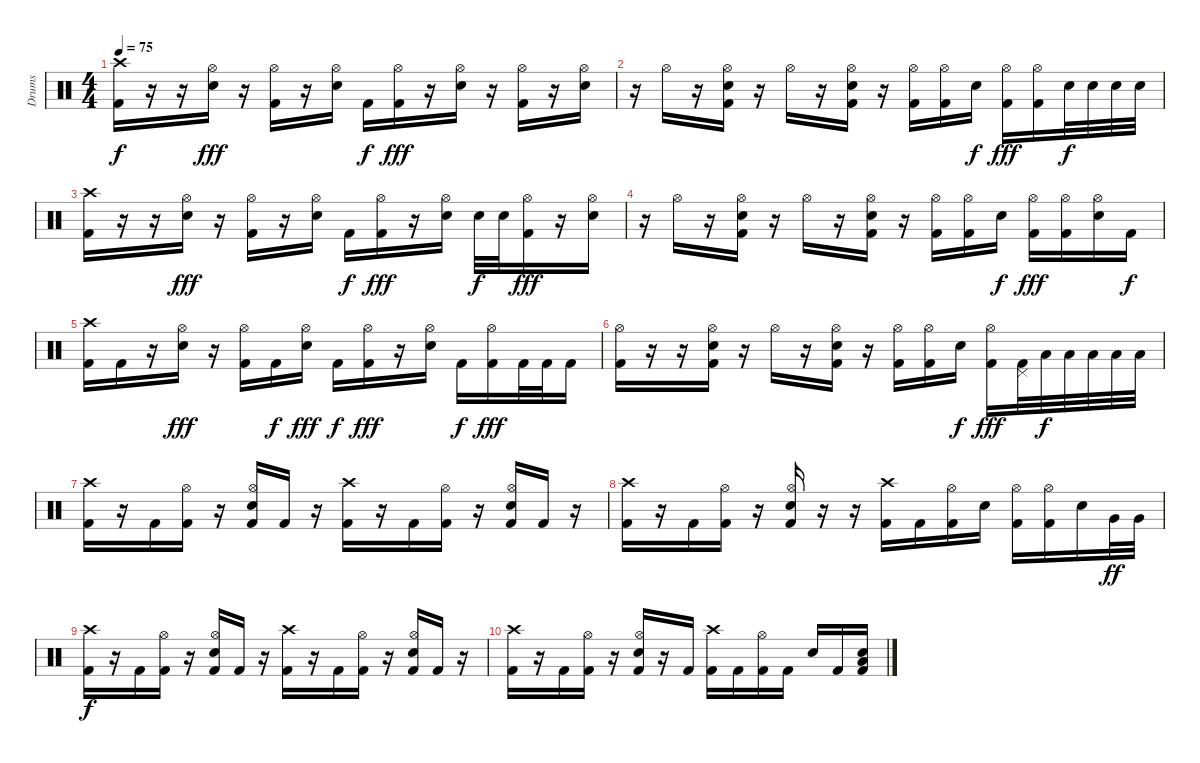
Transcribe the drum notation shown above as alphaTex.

\track ("Drums" "Drums") {instrument percussion}
\staff {score}
\articulation defaults
\ts (4 4)
\tempo 75
\clef neutral
\ks c
("Crash high (hit)" "Kick (hit) 2").16{dy f} r.16 r.16 ("Hi-Hat (open)" "Electric Snare (hit)").16{dy fff} r.16 ("Hi-Hat (open)" "Kick (hit) 2").16 r.16 ("Hi-Hat (open)" "Electric Snare (hit)").16 "Kick (hit) 2".16{dy f} ("Hi-Hat (open)" "Kick (hit) 2").16{dy fff} r.16 ("Hi-Hat (open)" "Electric Snare (hit)").16 r.16 ("Hi-Hat (open)" "Kick (hit) 2").16 r.16 ("Hi-Hat (open)" "Electric Snare (hit)").16 |
r.16 "Hi-Hat (open)".16 r.16 ("Hi-Hat (open)" "Electric Snare (hit)" "Kick (hit) 2").16 r.16 "Hi-Hat (open)".16 r.16 ("Hi-Hat (open)" "Electric Snare (hit)" "Kick (hit) 2").16 r.16 ("Hi-Hat (open)" "Kick (hit) 2").16 ("Hi-Hat (open)" "Kick (hit) 2").16 "Electric Snare (hit)".16{dy f} ("Hi-Hat (open)" "Kick (hit) 2").16{dy fff} ("Hi-Hat (open)" "Kick (hit) 2").16 "Electric Snare (hit)".32{dy f} "Electric Snare (hit)".32 "Electric Snare (hit)".32 "Electric Snare (hit)".32 |
("Crash high (hit)" "Kick (hit) 2").16 r.16 r.16 ("Hi-Hat (open)" "Electric Snare (hit)").16{dy fff} r.16 ("Hi-Hat (open)" "Kick (hit) 2").16 r.16 ("Hi-Hat (open)" "Electric Snare (hit)").16 "Kick (hit) 2".16{dy f} ("Hi-Hat (open)" "Kick (hit) 2").16{dy fff} r.16 ("Hi-Hat (open)" "Electric Snare (hit)").16 "Electric Snare (hit)".32{dy f} "Electric Snare (hit)".32 ("Hi-Hat (open)" "Kick (hit) 2").16{dy fff} r.16 ("Hi-Hat (open)" "Electric Snare (hit)").16 |
r.16 "Hi-Hat (open)".16 r.16 ("Hi-Hat (open)" "Electric Snare (hit)" "Kick (hit) 2").16 r.16 "Hi-Hat (open)".16 r.16 ("Hi-Hat (open)" "Electric Snare (hit)" "Kick (hit) 2").16 r.16 ("Hi-Hat (open)" "Kick (hit) 2").16 ("Hi-Hat (open)" "Kick (hit) 2").16 "Electric Snare (hit)".16{dy f} ("Hi-Hat (open)" "Kick (hit) 2").16{dy fff} ("Hi-Hat (open)" "Kick (hit) 2").16 ("Hi-Hat (open)" "Electric Snare (hit)").16 "Kick (hit) 2".16{dy f} |
("Crash high (hit)" "Kick (hit) 2").16 "Kick (hit) 2".16 r.16 ("Hi-Hat (open)" "Electric Snare (hit)").16{dy fff} r.16 ("Hi-Hat (open)" "Kick (hit) 2").16 "Kick (hit) 2".16{dy f} ("Hi-Hat (open)" "Electric Snare (hit)").16{dy fff} "Kick (hit) 2".16{dy f} ("Hi-Hat (open)" "Kick (hit) 2").16{dy fff} r.16 ("Hi-Hat (open)" "Electric Snare (hit)").16 "Kick (hit) 2".16{dy f} ("Hi-Hat (open)" "Kick (hit) 2").16{dy fff} "Kick (hit) 2".32 "Kick (hit) 2".32 "Kick (hit) 2".16 |
("Hi-Hat (open)" "Kick (hit) 2").16 r.16 r.16 ("Hi-Hat (open)" "Electric Snare (hit)" "Kick (hit) 2").16 r.16 "Hi-Hat (open)".16 r.16 ("Hi-Hat (open)" "Electric Snare (hit)" "Kick (hit) 2").16 r.16 ("Hi-Hat (open)" "Kick (hit) 2").16 ("Hi-Hat (open)" "Kick (hit) 2").16 "Electric Snare (hit)".16{dy f} ("Hi-Hat (open)" "Kick (hit) 2").16{dy fff} ("Pedal Hi-Hat (hit)" "Kick (hit) 2").32 "Low Tom (hit)".32{dy f} "Low Tom (hit)".32 "Low Tom (hit)".32 "Low Tom (hit)".32 "Low Tom (hit)".32 |
("Crash high (hit)" "Kick (hit) 2").16 r.16 "Kick (hit) 2".16 ("Hi-Hat (open)" "Kick (hit) 2").16 r.16 ("Hi-Hat (open)" "Electric Snare (hit)" "Kick (hit) 2").16 "Kick (hit) 2".16 r.16 ("Crash high (hit)" "Kick (hit) 2").16 r.16 "Kick (hit) 2".16 ("Hi-Hat (open)" "Kick (hit) 2").16 r.16 ("Hi-Hat (open)" "Electric Snare (hit)" "Kick (hit) 2").16 "Kick (hit) 2".16 r.16 |
("Crash high (hit)" "Kick (hit) 2").16 r.16 "Kick (hit) 2".16 ("Hi-Hat (open)" "Kick (hit) 2").16 r.16 ("Hi-Hat (open)" "Electric Snare (hit)" "Kick (hit) 2").16 r.16 r.16 ("Crash high (hit)" "Kick (hit) 2").16 "Kick (hit) 2".16 ("Hi-Hat (open)" "Kick (hit) 2").16 "Electric Snare (hit)".16 ("Hi-Hat (open)" "Kick (hit) 2").16 ("Hi-Hat (open)" "Kick (hit) 2").16 "Electric Snare (hit)".16 "Very Low Tom (hit)".32{dy ff} "Very Low Tom (hit)".32 |
("Crash high (hit)" "Kick (hit) 2").16{dy f} r.16 "Kick (hit) 2".16 ("Hi-Hat (open)" "Kick (hit) 2").16 r.16 ("Hi-Hat (open)" "Electric Snare (hit)" "Kick (hit) 2").16 "Kick (hit) 2".16 r.16 ("Crash high (hit)" "Kick (hit) 2").16 r.16 "Kick (hit) 2".16 ("Hi-Hat (open)" "Kick (hit) 2").16 r.16 ("Hi-Hat (open)" "Electric Snare (hit)" "Kick (hit) 2").16 "Kick (hit) 2".16 r.16 |
("Crash high (hit)" "Kick (hit) 2").16 r.16 "Kick (hit) 2".16 ("Hi-Hat (open)" "Kick (hit) 2").16 r.16 ("Hi-Hat (open)" "Electric Snare (hit)" "Kick (hit) 2").16 r.16 "Kick (hit) 2".16 ("Crash high (hit)" "Kick (hit) 2").16 "Kick (hit) 2".16 ("Hi-Hat (open)" "Kick (hit) 2").16 "Kick (hit) 2".16 "Electric Snare (hit)".16 "Kick (hit) 2".16 ("Electric Snare (hit)" "Low Tom (hit)" "Kick (hit) 2").16
